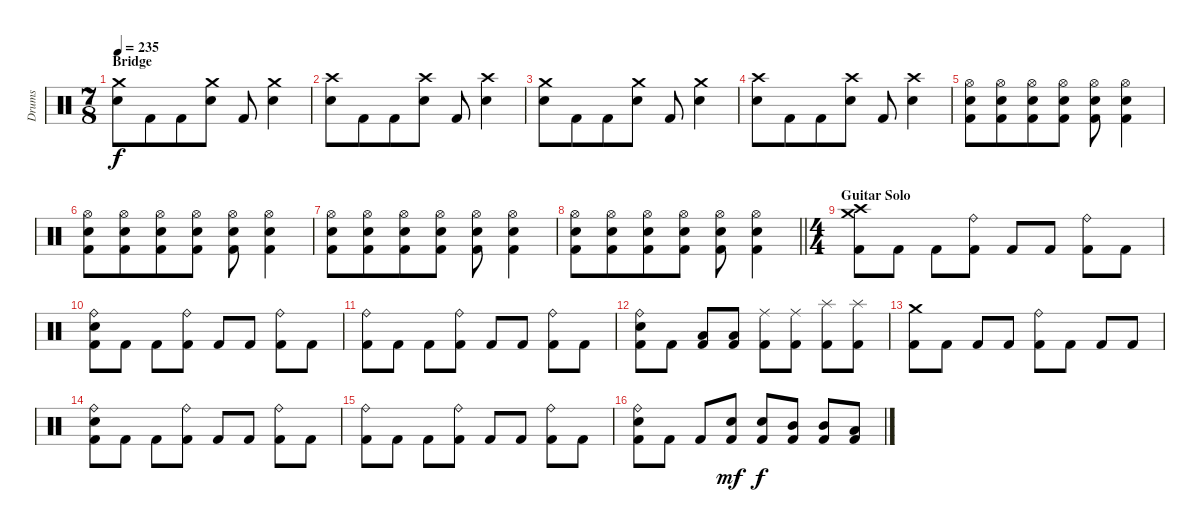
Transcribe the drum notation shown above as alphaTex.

\track ("Drums" "Drums") {instrument percussion}
\staff {score}
\articulation defaults
\ts (7 8)
\section ("" "Bridge")
\tempo 235
\clef neutral
\ks c
("Crash medium (hit)" "Electric Snare (hit)").8{dy f} "Kick (hit) 2".8 "Kick (hit) 2".8 ("Crash medium (hit)" "Electric Snare (hit)").8 "Kick (hit) 2".8 ("Crash medium (hit)" "Electric Snare (hit)").4 |
("Crash high (hit)" "Electric Snare (hit)").8 "Kick (hit) 2".8 "Kick (hit) 2".8 ("Crash high (hit)" "Electric Snare (hit)").8 "Kick (hit) 2".8 ("Crash high (hit)" "Electric Snare (hit)").4 |
("Crash medium (hit)" "Electric Snare (hit)").8 "Kick (hit) 2".8 "Kick (hit) 2".8 ("Crash medium (hit)" "Electric Snare (hit)").8 "Kick (hit) 2".8 ("Crash medium (hit)" "Electric Snare (hit)").4 |
("Crash high (hit)" "Electric Snare (hit)").8 "Kick (hit) 2".8 "Kick (hit) 2".8 ("Crash high (hit)" "Electric Snare (hit)").8 "Kick (hit) 2".8 ("Crash high (hit)" "Electric Snare (hit)").4 |
("Hi-Hat (open)" "Electric Snare (hit)" "Kick (hit) 2").8 ("Hi-Hat (open)" "Electric Snare (hit)" "Kick (hit) 2").8 ("Hi-Hat (open)" "Electric Snare (hit)" "Kick (hit) 2").8 ("Hi-Hat (open)" "Electric Snare (hit)" "Kick (hit) 2").8 ("Hi-Hat (open)" "Electric Snare (hit)" "Kick (hit) 2").8 ("Hi-Hat (open)" "Electric Snare (hit)" "Kick (hit) 2").4 |
("Hi-Hat (open)" "Electric Snare (hit)" "Kick (hit) 2").8 ("Hi-Hat (open)" "Electric Snare (hit)" "Kick (hit) 2").8 ("Hi-Hat (open)" "Electric Snare (hit)" "Kick (hit) 2").8 ("Hi-Hat (open)" "Electric Snare (hit)" "Kick (hit) 2").8 ("Hi-Hat (open)" "Electric Snare (hit)" "Kick (hit) 2").8 ("Hi-Hat (open)" "Electric Snare (hit)" "Kick (hit) 2").4 |
("Hi-Hat (open)" "Electric Snare (hit)" "Kick (hit) 2").8 ("Hi-Hat (open)" "Electric Snare (hit)" "Kick (hit) 2").8 ("Hi-Hat (open)" "Electric Snare (hit)" "Kick (hit) 2").8 ("Hi-Hat (open)" "Electric Snare (hit)" "Kick (hit) 2").8 ("Hi-Hat (open)" "Electric Snare (hit)" "Kick (hit) 2").8 ("Hi-Hat (open)" "Electric Snare (hit)" "Kick (hit) 2").4 |
\barLineRight lightlight
("Hi-Hat (open)" "Electric Snare (hit)" "Kick (hit) 2").8 ("Hi-Hat (open)" "Electric Snare (hit)" "Kick (hit) 2").8 ("Hi-Hat (open)" "Electric Snare (hit)" "Kick (hit) 2").8 ("Hi-Hat (open)" "Electric Snare (hit)" "Kick (hit) 2").8 ("Hi-Hat (open)" "Electric Snare (hit)" "Kick (hit) 2").8 ("Hi-Hat (open)" "Electric Snare (hit)" "Kick (hit) 2").4 |
\ts (4 4)
\section ("" "Guitar Solo")
("Crash medium (hit)" "Crash high (hit)" "Kick (hit) 2").8 "Kick (hit) 2".8 "Kick (hit) 2".8 ("Ride (bell)" "Kick (hit) 2").8 "Kick (hit) 2".8 "Kick (hit) 2".8 ("Ride (bell)" "Kick (hit) 2").8 "Kick (hit) 2".8 |
("Ride (bell)" "Electric Snare (hit)" "Kick (hit) 2").8 "Kick (hit) 2".8 "Kick (hit) 2".8 ("Ride (bell)" "Kick (hit) 2").8 "Kick (hit) 2".8 "Kick (hit) 2".8 ("Ride (bell)" "Kick (hit) 2").8 "Kick (hit) 2".8 |
("Ride (bell)" "Kick (hit) 2").8 "Kick (hit) 2".8 "Kick (hit) 2".8 ("Ride (bell)" "Kick (hit) 2").8 "Kick (hit) 2".8 "Kick (hit) 2".8 ("Ride (bell)" "Kick (hit) 2").8 "Kick (hit) 2".8 |
("Ride (bell)" "Electric Snare (hit)" "Kick (hit) 2").8 "Kick (hit) 2".8 ("Low Tom (hit)" "Kick (hit) 2").8 ("Low Tom (hit)" "Kick (hit) 2").8 ("Ride (middle)" "Kick (hit) 2").8 ("Ride (middle)" "Kick (hit) 2").8 ("Splash (hit)" "Kick (hit) 2").8 ("Splash (hit)" "Kick (hit) 2").8 |
("Crash medium (hit)" "Kick (hit) 2").8 "Kick (hit) 2".8 "Kick (hit) 2".8 "Kick (hit) 2".8 ("Ride (bell)" "Kick (hit) 2").8 "Kick (hit) 2".8 "Kick (hit) 2".8 "Kick (hit) 2".8 |
("Ride (bell)" "Electric Snare (hit)" "Kick (hit) 2").8 "Kick (hit) 2".8 "Kick (hit) 2".8 ("Ride (bell)" "Kick (hit) 2").8 "Kick (hit) 2".8 "Kick (hit) 2".8 ("Ride (bell)" "Kick (hit) 2").8 "Kick (hit) 2".8 |
("Ride (bell)" "Kick (hit) 2").8 "Kick (hit) 2".8 "Kick (hit) 2".8 ("Ride (bell)" "Kick (hit) 2").8 "Kick (hit) 2".8 "Kick (hit) 2".8 ("Ride (bell)" "Kick (hit) 2").8 "Kick (hit) 2".8 |
("Ride (bell)" "Electric Snare (hit)" "Kick (hit) 2").8 "Kick (hit) 2".8 "Kick (hit) 2".8 ("Electric Snare (hit)" "Kick (hit) 2").8{dy mf} ("Electric Snare (hit)" "Kick (hit) 2").8{dy f} ("Mid Tom (hit)" "Kick (hit) 2").8 ("Mid Tom (hit)" "Kick (hit) 2").8 ("Low Tom (hit)" "Kick (hit) 2").8
